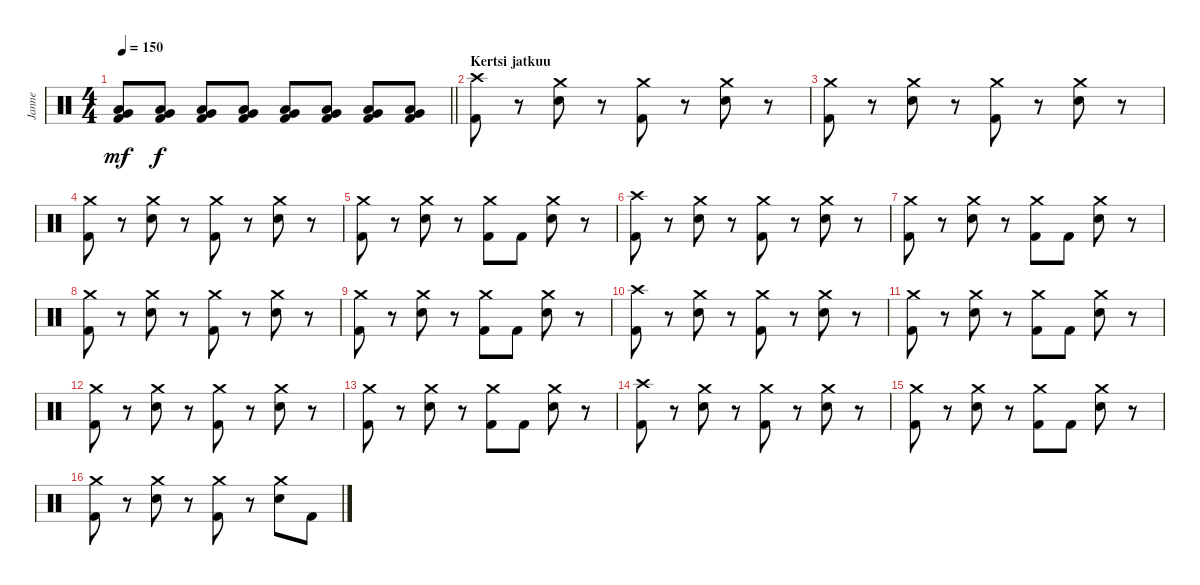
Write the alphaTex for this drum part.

\track ("Janne" "Janne") {instrument percussion}
\staff {score}
\articulation defaults
\ts (4 4)
\tempo 150
\clef neutral
\barLineRight lightlight
\ks c
("Very Low Tom (hit)" "Low Floor Tom (hit)" "Kick (hit) 2").8{dy mf} ("Very Low Tom (hit)" "Low Floor Tom (hit)" "Kick (hit) 2").8{dy f} ("Very Low Tom (hit)" "Low Floor Tom (hit)" "Kick (hit) 2").8 ("Very Low Tom (hit)" "Low Floor Tom (hit)" "Kick (hit) 2").8 ("Very Low Tom (hit)" "Low Floor Tom (hit)" "Kick (hit) 2").8 ("Very Low Tom (hit)" "Low Floor Tom (hit)" "Kick (hit) 2").8 ("Very Low Tom (hit)" "Low Floor Tom (hit)" "Kick (hit) 2").8 ("Very Low Tom (hit)" "Low Floor Tom (hit)" "Kick (hit) 2").8 |
\section ("" "Kertsi jatkuu")
("Crash high (hit)" "Kick (hit) 2").8 r.8 ("Crash medium (hit)" "Electric Snare (hit)").8 r.8 ("Crash medium (hit)" "Kick (hit) 2").8 r.8 ("Crash medium (hit)" "Electric Snare (hit)").8 r.8 |
("Crash medium (hit)" "Kick (hit) 2").8 r.8 ("Crash medium (hit)" "Electric Snare (hit)").8 r.8 ("Crash medium (hit)" "Kick (hit) 2").8 r.8 ("Crash medium (hit)" "Electric Snare (hit)").8 r.8 |
("Crash medium (hit)" "Kick (hit) 2").8 r.8 ("Crash medium (hit)" "Electric Snare (hit)").8 r.8 ("Crash medium (hit)" "Kick (hit) 2").8 r.8 ("Crash medium (hit)" "Electric Snare (hit)").8 r.8 |
("Crash medium (hit)" "Kick (hit) 2").8 r.8 ("Crash medium (hit)" "Electric Snare (hit)").8 r.8 ("Crash medium (hit)" "Kick (hit) 2").8 "Kick (hit) 2".8 ("Crash medium (hit)" "Electric Snare (hit)").8 r.8 |
("Crash high (hit)" "Kick (hit) 2").8 r.8 ("Crash medium (hit)" "Electric Snare (hit)").8 r.8 ("Crash medium (hit)" "Kick (hit) 2").8 r.8 ("Crash medium (hit)" "Electric Snare (hit)").8 r.8 |
("Crash medium (hit)" "Kick (hit) 2").8 r.8 ("Crash medium (hit)" "Electric Snare (hit)").8 r.8 ("Crash medium (hit)" "Kick (hit) 2").8 "Kick (hit) 2".8 ("Crash medium (hit)" "Electric Snare (hit)").8 r.8 |
("Crash medium (hit)" "Kick (hit) 2").8 r.8 ("Crash medium (hit)" "Electric Snare (hit)").8 r.8 ("Crash medium (hit)" "Kick (hit) 2").8 r.8 ("Crash medium (hit)" "Electric Snare (hit)").8 r.8 |
("Crash medium (hit)" "Kick (hit) 2").8 r.8 ("Crash medium (hit)" "Electric Snare (hit)").8 r.8 ("Crash medium (hit)" "Kick (hit) 2").8 "Kick (hit) 2".8 ("Crash medium (hit)" "Electric Snare (hit)").8 r.8 |
("Crash high (hit)" "Kick (hit) 2").8 r.8 ("Crash medium (hit)" "Electric Snare (hit)").8 r.8 ("Crash medium (hit)" "Kick (hit) 2").8 r.8 ("Crash medium (hit)" "Electric Snare (hit)").8 r.8 |
("Crash medium (hit)" "Kick (hit) 2").8 r.8 ("Crash medium (hit)" "Electric Snare (hit)").8 r.8 ("Crash medium (hit)" "Kick (hit) 2").8 "Kick (hit) 2".8 ("Crash medium (hit)" "Electric Snare (hit)").8 r.8 |
("Crash medium (hit)" "Kick (hit) 2").8 r.8 ("Crash medium (hit)" "Electric Snare (hit)").8 r.8 ("Crash medium (hit)" "Kick (hit) 2").8 r.8 ("Crash medium (hit)" "Electric Snare (hit)").8 r.8 |
("Crash medium (hit)" "Kick (hit) 2").8 r.8 ("Crash medium (hit)" "Electric Snare (hit)").8 r.8 ("Crash medium (hit)" "Kick (hit) 2").8 "Kick (hit) 2".8 ("Crash medium (hit)" "Electric Snare (hit)").8 r.8 |
("Crash high (hit)" "Kick (hit) 2").8 r.8 ("Crash medium (hit)" "Electric Snare (hit)").8 r.8 ("Crash medium (hit)" "Kick (hit) 2").8 r.8 ("Crash medium (hit)" "Electric Snare (hit)").8 r.8 |
("Crash medium (hit)" "Kick (hit) 2").8 r.8 ("Crash medium (hit)" "Electric Snare (hit)").8 r.8 ("Crash medium (hit)" "Kick (hit) 2").8 "Kick (hit) 2".8 ("Crash medium (hit)" "Electric Snare (hit)").8 r.8 |
("Crash medium (hit)" "Kick (hit) 2").8 r.8 ("Crash medium (hit)" "Electric Snare (hit)").8 r.8 ("Crash medium (hit)" "Kick (hit) 2").8 r.8 ("Crash medium (hit)" "Electric Snare (hit)").8 "Kick (hit) 2".8
